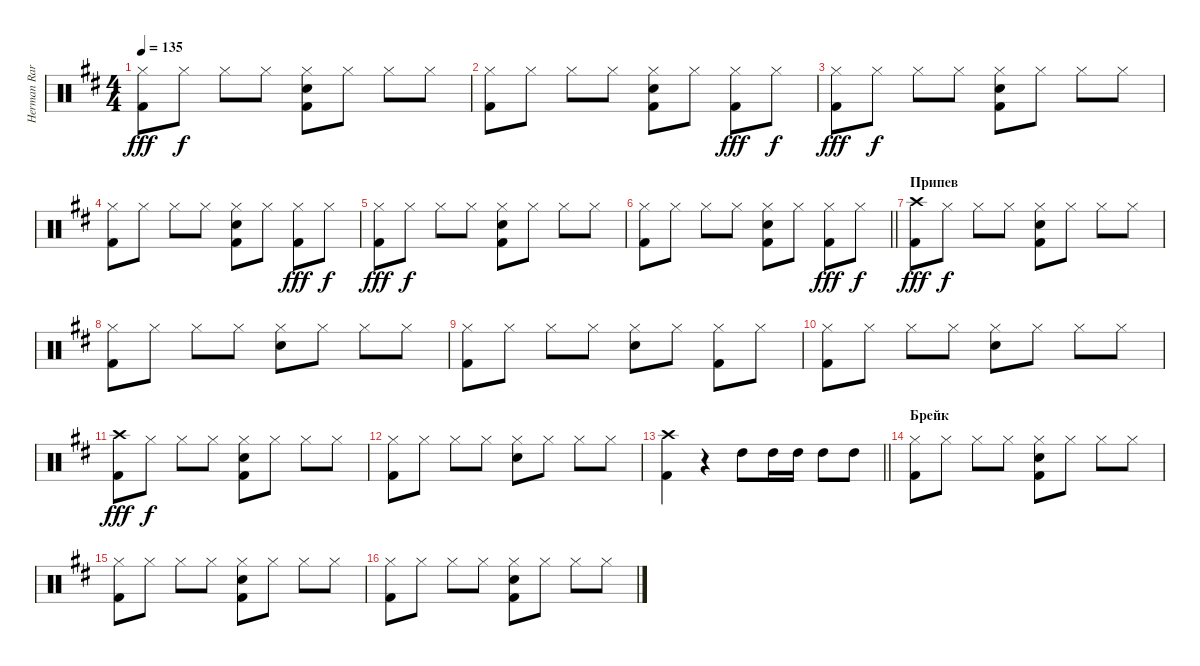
\track ("Herman Rarebell" "Herman Rar") {instrument percussion}
\staff {score}
\articulation defaults
\ts (4 4)
\tempo 135
\clef neutral
\ks d
("Hi-Hat (closed)" "Kick (hit) 2").8{dy fff} "Hi-Hat (closed)".8{dy f} "Hi-Hat (closed)".8 "Hi-Hat (closed)".8 ("Hi-Hat (closed)" "Snare (hit) 2" "Kick (hit) 2").8 "Hi-Hat (closed)".8 "Hi-Hat (closed)".8 "Hi-Hat (closed)".8 |
("Hi-Hat (closed)" "Kick (hit) 2").8 "Hi-Hat (closed)".8 "Hi-Hat (closed)".8 "Hi-Hat (closed)".8 ("Hi-Hat (closed)" "Snare (hit) 2" "Kick (hit) 2").8 "Hi-Hat (closed)".8 ("Hi-Hat (closed)" "Kick (hit) 2").8{dy fff} "Hi-Hat (closed)".8{dy f} |
("Hi-Hat (closed)" "Kick (hit) 2").8{dy fff} "Hi-Hat (closed)".8{dy f} "Hi-Hat (closed)".8 "Hi-Hat (closed)".8 ("Hi-Hat (closed)" "Snare (hit) 2" "Kick (hit) 2").8 "Hi-Hat (closed)".8 "Hi-Hat (closed)".8 "Hi-Hat (closed)".8 |
("Hi-Hat (closed)" "Kick (hit) 2").8 "Hi-Hat (closed)".8 "Hi-Hat (closed)".8 "Hi-Hat (closed)".8 ("Hi-Hat (closed)" "Snare (hit) 2" "Kick (hit) 2").8 "Hi-Hat (closed)".8 ("Hi-Hat (closed)" "Kick (hit) 2").8{dy fff} "Hi-Hat (closed)".8{dy f} |
("Hi-Hat (closed)" "Kick (hit) 2").8{dy fff} "Hi-Hat (closed)".8{dy f} "Hi-Hat (closed)".8 "Hi-Hat (closed)".8 ("Hi-Hat (closed)" "Snare (hit) 2" "Kick (hit) 2").8 "Hi-Hat (closed)".8 "Hi-Hat (closed)".8 "Hi-Hat (closed)".8 |
\barLineRight lightlight
("Hi-Hat (closed)" "Kick (hit) 2").8 "Hi-Hat (closed)".8 "Hi-Hat (closed)".8 "Hi-Hat (closed)".8 ("Hi-Hat (closed)" "Snare (hit) 2" "Kick (hit) 2").8 "Hi-Hat (closed)".8 ("Hi-Hat (closed)" "Kick (hit) 2").8{dy fff} "Hi-Hat (closed)".8{dy f} |
\section ("" "Припев")
("Crash high (hit)" "Kick (hit) 2").8{dy fff} "Hi-Hat (closed)".8{dy f} "Hi-Hat (closed)".8 "Hi-Hat (closed)".8 ("Hi-Hat (closed)" "Snare (hit) 2" "Kick (hit) 2").8 "Hi-Hat (closed)".8 "Hi-Hat (closed)".8 "Hi-Hat (closed)".8 |
("Hi-Hat (closed)" "Kick (hit) 2").8 "Hi-Hat (closed)".8 "Hi-Hat (closed)".8 "Hi-Hat (closed)".8 ("Hi-Hat (closed)" "Snare (hit) 2").8 "Hi-Hat (closed)".8 "Hi-Hat (closed)".8 "Hi-Hat (closed)".8 |
("Hi-Hat (closed)" "Kick (hit) 2").8 "Hi-Hat (closed)".8 "Hi-Hat (closed)".8 "Hi-Hat (closed)".8 ("Hi-Hat (closed)" "Snare (hit) 2").8 "Hi-Hat (closed)".8 ("Hi-Hat (closed)" "Kick (hit) 2").8 "Hi-Hat (closed)".8 |
("Hi-Hat (closed)" "Kick (hit) 2").8 "Hi-Hat (closed)".8 "Hi-Hat (closed)".8 "Hi-Hat (closed)".8 ("Hi-Hat (closed)" "Snare (hit) 2").8 "Hi-Hat (closed)".8 "Hi-Hat (closed)".8 "Hi-Hat (closed)".8 |
("Crash high (hit)" "Kick (hit) 2").8{dy fff} "Hi-Hat (closed)".8{dy f} "Hi-Hat (closed)".8 "Hi-Hat (closed)".8 ("Hi-Hat (closed)" "Snare (hit) 2" "Kick (hit) 2").8 "Hi-Hat (closed)".8 "Hi-Hat (closed)".8 "Hi-Hat (closed)".8 |
("Hi-Hat (closed)" "Kick (hit) 2").8 "Hi-Hat (closed)".8 "Hi-Hat (closed)".8 "Hi-Hat (closed)".8 ("Hi-Hat (closed)" "Snare (hit) 2").8 "Hi-Hat (closed)".8 "Hi-Hat (closed)".8 "Hi-Hat (closed)".8 |
\barLineRight lightlight
("Crash high (hit)" "Kick (hit) 2").4 r.4 "High Tom (hit)".8 "High Tom (hit)".16 "High Tom (hit)".16 "High Tom (hit)".8 "High Tom (hit)".8 |
\section ("" "Брейк")
("Hi-Hat (closed)" "Kick (hit) 2").8 "Hi-Hat (closed)".8 "Hi-Hat (closed)".8 "Hi-Hat (closed)".8 ("Hi-Hat (closed)" "Snare (hit) 2" "Kick (hit) 2").8 "Hi-Hat (closed)".8 "Hi-Hat (closed)".8 "Hi-Hat (closed)".8 |
("Hi-Hat (closed)" "Kick (hit) 2").8 "Hi-Hat (closed)".8 "Hi-Hat (closed)".8 "Hi-Hat (closed)".8 ("Hi-Hat (closed)" "Snare (hit) 2" "Kick (hit) 2").8 "Hi-Hat (closed)".8 "Hi-Hat (closed)".8 "Hi-Hat (closed)".8 |
("Hi-Hat (closed)" "Kick (hit) 2").8 "Hi-Hat (closed)".8 "Hi-Hat (closed)".8 "Hi-Hat (closed)".8 ("Hi-Hat (closed)" "Snare (hit) 2" "Kick (hit) 2").8 "Hi-Hat (closed)".8 "Hi-Hat (closed)".8 "Hi-Hat (closed)".8
